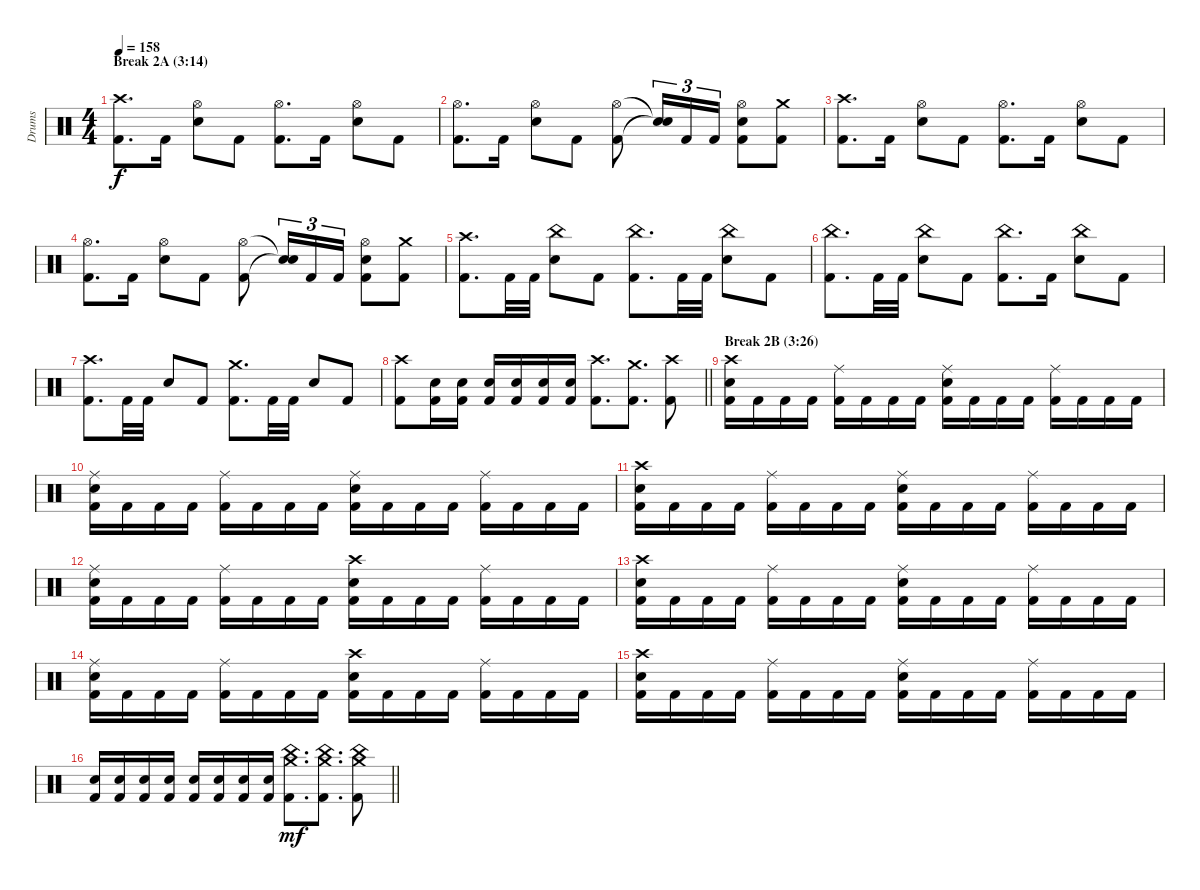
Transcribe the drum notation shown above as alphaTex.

\track ("Drums" "Drums") {instrument percussion}
\staff {score}
\articulation defaults
\ts (4 4)
\section ("" "Break 2A (3:14)")
\tempo 158
\clef neutral
\ks c
("Crash high (hit)" "Kick (hit) 2").8{d dy f} "Kick (hit) 2".16 ("Hi-Hat (open)" "Electric Snare (hit)").8 "Kick (hit) 2".8 ("Hi-Hat (open)" "Kick (hit) 2").8{d} "Kick (hit) 2".16 ("Hi-Hat (open)" "Electric Snare (hit)").8 "Kick (hit) 2".8 |
("Hi-Hat (open)" "Kick (hit) 2").8{d} "Kick (hit) 2".16 ("Hi-Hat (open)" "Electric Snare (hit)").8 "Kick (hit) 2".8 ("Hi-Hat (open)" "Kick (hit) 2").8 ("Snare (hit)"{t} "Snare (hit)"{t}).16{tu (3 2)} "Kick (hit) 2".16{tu (3 2)} "Kick (hit) 2".16{tu (3 2)} ("Hi-Hat (open)" "Electric Snare (hit)" "Kick (hit) 2").8 ("Crash medium (hit)" "Kick (hit) 2").8 |
("Crash high (hit)" "Kick (hit) 2").8{d} "Kick (hit) 2".16 ("Hi-Hat (open)" "Electric Snare (hit)").8 "Kick (hit) 2".8 ("Hi-Hat (open)" "Kick (hit) 2").8{d} "Kick (hit) 2".16 ("Hi-Hat (open)" "Electric Snare (hit)").8 "Kick (hit) 2".8 |
("Hi-Hat (open)" "Kick (hit) 2").8{d} "Kick (hit) 2".16 ("Hi-Hat (open)" "Electric Snare (hit)").8 "Kick (hit) 2".8 ("Hi-Hat (open)" "Kick (hit) 2").8 ("Snare (hit)"{t} "Snare (hit)"{t}).16{tu (3 2)} "Kick (hit) 2".16{tu (3 2)} "Kick (hit) 2".16{tu (3 2)} ("Hi-Hat (open)" "Electric Snare (hit)" "Kick (hit) 2").8 ("Crash medium (hit)" "Kick (hit) 2").8 |
("Crash high (hit)" "Kick (hit) 2").8{d} "Kick (hit) 2".32 "Kick (hit) 2".32 ("China (hit)" "Electric Snare (hit)").8 "Kick (hit) 2".8 ("China (hit)" "Kick (hit) 2").8{d} "Kick (hit) 2".32 "Kick (hit) 2".32 ("China (hit)" "Electric Snare (hit)").8 "Kick (hit) 2".8 |
("China (hit)" "Kick (hit) 2").8{d} "Kick (hit) 2".32 "Kick (hit) 2".32 ("China (hit)" "Electric Snare (hit)").8 "Kick (hit) 2".8 ("China (hit)" "Kick (hit) 2").8{d} "Kick (hit) 2".16 ("China (hit)" "Electric Snare (hit)").8 "Kick (hit) 2".8 |
("Crash high (hit)" "Kick (hit) 2").8{d} "Kick (hit) 2".32 "Kick (hit) 2".32 "Electric Snare (hit)".8 "Kick (hit) 2".8 ("Crash medium (hit)" "Kick (hit) 2").8{d} "Kick (hit) 2".32 "Kick (hit) 2".32 "Electric Snare (hit)".8 "Kick (hit) 2".8 |
\barLineRight lightlight
("Crash high (hit)" "Kick (hit) 2").8 ("Electric Snare (hit)" "Kick (hit) 2").16 ("Electric Snare (hit)" "Kick (hit) 2").16 ("Electric Snare (hit)" "Kick (hit) 2").16 ("Electric Snare (hit)" "Kick (hit) 2").16 ("Electric Snare (hit)" "Kick (hit) 2").16 ("Electric Snare (hit)" "Kick (hit) 2").16 ("Crash high (hit)" "Kick (hit) 2").8{d} ("Crash medium (hit)" "Kick (hit) 2").8{d} ("Crash high (hit)" "Kick (hit) 2").8 |
\section ("" "Break 2B (3:26)")
("Crash high (hit)" "Electric Snare (hit)" "Kick (hit) 2").16 "Kick (hit) 2".16 "Kick (hit) 2".16 "Kick (hit) 2".16 ("Ride (middle)" "Kick (hit) 2").16 "Kick (hit) 2".16 "Kick (hit) 2".16 "Kick (hit) 2".16 ("Ride (middle)" "Electric Snare (hit)" "Kick (hit) 2").16 "Kick (hit) 2".16 "Kick (hit) 2".16 "Kick (hit) 2".16 ("Ride (middle)" "Kick (hit) 2").16 "Kick (hit) 2".16 "Kick (hit) 2".16 "Kick (hit) 2".16 |
("Ride (middle)" "Electric Snare (hit)" "Kick (hit) 2").16 "Kick (hit) 2".16 "Kick (hit) 2".16 "Kick (hit) 2".16 ("Ride (middle)" "Kick (hit) 2").16 "Kick (hit) 2".16 "Kick (hit) 2".16 "Kick (hit) 2".16 ("Ride (middle)" "Electric Snare (hit)" "Kick (hit) 2").16 "Kick (hit) 2".16 "Kick (hit) 2".16 "Kick (hit) 2".16 ("Ride (middle)" "Kick (hit) 2").16 "Kick (hit) 2".16 "Kick (hit) 2".16 "Kick (hit) 2".16 |
("Crash high (hit)" "Electric Snare (hit)" "Kick (hit) 2").16 "Kick (hit) 2".16 "Kick (hit) 2".16 "Kick (hit) 2".16 ("Ride (middle)" "Kick (hit) 2").16 "Kick (hit) 2".16 "Kick (hit) 2".16 "Kick (hit) 2".16 ("Ride (middle)" "Electric Snare (hit)" "Kick (hit) 2").16 "Kick (hit) 2".16 "Kick (hit) 2".16 "Kick (hit) 2".16 ("Ride (middle)" "Kick (hit) 2").16 "Kick (hit) 2".16 "Kick (hit) 2".16 "Kick (hit) 2".16 |
("Ride (middle)" "Electric Snare (hit)" "Kick (hit) 2").16 "Kick (hit) 2".16 "Kick (hit) 2".16 "Kick (hit) 2".16 ("Ride (middle)" "Kick (hit) 2").16 "Kick (hit) 2".16 "Kick (hit) 2".16 "Kick (hit) 2".16 ("Crash high (hit)" "Electric Snare (hit)" "Kick (hit) 2").16 "Kick (hit) 2".16 "Kick (hit) 2".16 "Kick (hit) 2".16 ("Ride (middle)" "Kick (hit) 2").16 "Kick (hit) 2".16 "Kick (hit) 2".16 "Kick (hit) 2".16 |
("Crash high (hit)" "Electric Snare (hit)" "Kick (hit) 2").16 "Kick (hit) 2".16 "Kick (hit) 2".16 "Kick (hit) 2".16 ("Ride (middle)" "Kick (hit) 2").16 "Kick (hit) 2".16 "Kick (hit) 2".16 "Kick (hit) 2".16 ("Ride (middle)" "Electric Snare (hit)" "Kick (hit) 2").16 "Kick (hit) 2".16 "Kick (hit) 2".16 "Kick (hit) 2".16 ("Ride (middle)" "Kick (hit) 2").16 "Kick (hit) 2".16 "Kick (hit) 2".16 "Kick (hit) 2".16 |
("Ride (middle)" "Electric Snare (hit)" "Kick (hit) 2").16 "Kick (hit) 2".16 "Kick (hit) 2".16 "Kick (hit) 2".16 ("Ride (middle)" "Kick (hit) 2").16 "Kick (hit) 2".16 "Kick (hit) 2".16 "Kick (hit) 2".16 ("Crash high (hit)" "Electric Snare (hit)" "Kick (hit) 2").16 "Kick (hit) 2".16 "Kick (hit) 2".16 "Kick (hit) 2".16 ("Ride (middle)" "Kick (hit) 2").16 "Kick (hit) 2".16 "Kick (hit) 2".16 "Kick (hit) 2".16 |
("Crash high (hit)" "Electric Snare (hit)" "Kick (hit) 2").16 "Kick (hit) 2".16 "Kick (hit) 2".16 "Kick (hit) 2".16 ("Ride (middle)" "Kick (hit) 2").16 "Kick (hit) 2".16 "Kick (hit) 2".16 "Kick (hit) 2".16 ("Ride (middle)" "Electric Snare (hit)" "Kick (hit) 2").16 "Kick (hit) 2".16 "Kick (hit) 2".16 "Kick (hit) 2".16 ("Ride (middle)" "Kick (hit) 2").16 "Kick (hit) 2".16 "Kick (hit) 2".16 "Kick (hit) 2".16 |
\barLineRight lightlight
("Electric Snare (hit)" "Kick (hit) 2").16 ("Electric Snare (hit)" "Kick (hit) 2").16 ("Electric Snare (hit)" "Kick (hit) 2").16 ("Electric Snare (hit)" "Kick (hit) 2").16 ("Electric Snare (hit)" "Kick (hit) 2").16 ("Electric Snare (hit)" "Kick (hit) 2").16 ("Electric Snare (hit)" "Kick (hit) 2").16 ("Electric Snare (hit)" "Kick (hit) 2").16 ("China (hit)" "Crash medium (hit)" "Kick (hit) 2").8{d dy mf} ("China (hit)" "Crash medium (hit)" "Kick (hit) 2").8{d} ("China (hit)" "Crash medium (hit)" "Kick (hit) 2").8
